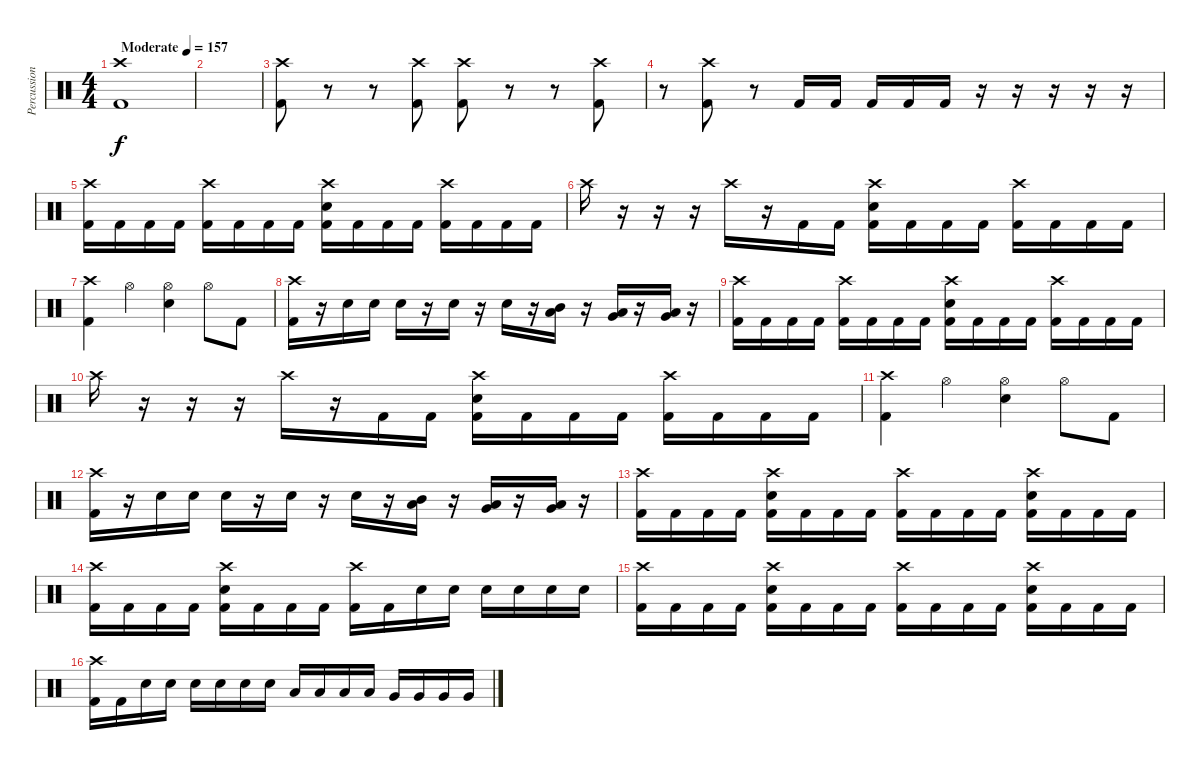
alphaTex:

\track ("Percussion" "Percussion") {instrument percussion}
\staff {score}
\articulation defaults
\ts (4 4)
\tempo (157 "Moderate")
\clef neutral
\ks c
("Crash high (hit)" "Kick (hit) 2").1{dy f} |
|
("Crash high (hit)" "Kick (hit) 2").8 r.8 r.8 ("Crash high (hit)" "Kick (hit) 2").8 ("Crash high (hit)" "Kick (hit) 2").8 r.8 r.8 ("Crash high (hit)" "Kick (hit) 2").8 |
r.8 ("Crash high (hit)" "Kick (hit) 2").8 r.8 "Kick (hit) 2".16 "Kick (hit) 2".16 "Kick (hit) 2".16 "Kick (hit) 2".16 "Kick (hit) 2".16 r.16 r.16 r.16 r.16 r.16 |
("Crash high (hit)" "Kick (hit) 2").16 "Kick (hit) 2".16 "Kick (hit) 2".16 "Kick (hit) 2".16 ("Crash high (hit)" "Kick (hit) 2").16 "Kick (hit) 2".16 "Kick (hit) 2".16 "Kick (hit) 2".16 ("Crash high (hit)" "Electric Snare (hit)" "Kick (hit) 2").16 "Kick (hit) 2".16 "Kick (hit) 2".16 "Kick (hit) 2".16 ("Crash high (hit)" "Kick (hit) 2").16 "Kick (hit) 2".16 "Kick (hit) 2".16 "Kick (hit) 2".16 |
"Crash high (hit)".16 r.16 r.16 r.16 "Crash high (hit)".16 r.16 "Kick (hit) 2".16 "Kick (hit) 2".16 ("Crash high (hit)" "Electric Snare (hit)" "Kick (hit) 2").16 "Kick (hit) 2".16 "Kick (hit) 2".16 "Kick (hit) 2".16 ("Crash high (hit)" "Kick (hit) 2").16 "Kick (hit) 2".16 "Kick (hit) 2".16 "Kick (hit) 2".16 |
("Crash high (hit)" "Kick (hit) 2").4 "Hi-Hat (open)".4 ("Hi-Hat (open)" "Electric Snare (hit)").4 "Hi-Hat (open)".8 "Kick (hit) 2".8 |
("Crash high (hit)" "Kick (hit) 2").16 r.16 "Electric Snare (hit)".16 "Electric Snare (hit)".16 "Electric Snare (hit)".16 r.16 "Electric Snare (hit)".16 r.16 "Electric Snare (hit)".16 r.16 ("Mid Tom (hit)" "Low Tom (hit)").16 r.16 ("Low Tom (hit)" "Very Low Tom (hit)").16 r.16 ("Very Low Tom (hit)" "Low Floor Tom (hit)").16 r.16 |
("Crash high (hit)" "Kick (hit) 2").16 "Kick (hit) 2".16 "Kick (hit) 2".16 "Kick (hit) 2".16 ("Crash high (hit)" "Kick (hit) 2").16 "Kick (hit) 2".16 "Kick (hit) 2".16 "Kick (hit) 2".16 ("Crash high (hit)" "Electric Snare (hit)" "Kick (hit) 2").16 "Kick (hit) 2".16 "Kick (hit) 2".16 "Kick (hit) 2".16 ("Crash high (hit)" "Kick (hit) 2").16 "Kick (hit) 2".16 "Kick (hit) 2".16 "Kick (hit) 2".16 |
"Crash high (hit)".16 r.16 r.16 r.16 "Crash high (hit)".16 r.16 "Kick (hit) 2".16 "Kick (hit) 2".16 ("Crash high (hit)" "Electric Snare (hit)" "Kick (hit) 2").16 "Kick (hit) 2".16 "Kick (hit) 2".16 "Kick (hit) 2".16 ("Crash high (hit)" "Kick (hit) 2").16 "Kick (hit) 2".16 "Kick (hit) 2".16 "Kick (hit) 2".16 |
("Crash high (hit)" "Kick (hit) 2").4 "Hi-Hat (open)".4 ("Hi-Hat (open)" "Electric Snare (hit)").4 "Hi-Hat (open)".8 "Kick (hit) 2".8 |
("Crash high (hit)" "Kick (hit) 2").16 r.16 "Electric Snare (hit)".16 "Electric Snare (hit)".16 "Electric Snare (hit)".16 r.16 "Electric Snare (hit)".16 r.16 "Electric Snare (hit)".16 r.16 ("Mid Tom (hit)" "Low Tom (hit)").16 r.16 ("Low Tom (hit)" "Very Low Tom (hit)").16 r.16 ("Very Low Tom (hit)" "Low Floor Tom (hit)").16 r.16 |
("Crash high (hit)" "Kick (hit) 2").16 "Kick (hit) 2".16 "Kick (hit) 2".16 "Kick (hit) 2".16 ("Crash high (hit)" "Electric Snare (hit)" "Kick (hit) 2").16 "Kick (hit) 2".16 "Kick (hit) 2".16 "Kick (hit) 2".16 ("Crash high (hit)" "Kick (hit) 2").16 "Kick (hit) 2".16 "Kick (hit) 2".16 "Kick (hit) 2".16 ("Crash high (hit)" "Electric Snare (hit)" "Kick (hit) 2").16 "Kick (hit) 2".16 "Kick (hit) 2".16 "Kick (hit) 2".16 |
("Crash high (hit)" "Kick (hit) 2").16 "Kick (hit) 2".16 "Kick (hit) 2".16 "Kick (hit) 2".16 ("Crash high (hit)" "Electric Snare (hit)" "Kick (hit) 2").16 "Kick (hit) 2".16 "Kick (hit) 2".16 "Kick (hit) 2".16 ("Crash high (hit)" "Kick (hit) 2").16 "Kick (hit) 2".16 "Electric Snare (hit)".16 "Electric Snare (hit)".16 "Electric Snare (hit)".16 "Electric Snare (hit)".16 "Electric Snare (hit)".16 "Electric Snare (hit)".16 |
("Crash high (hit)" "Kick (hit) 2").16 "Kick (hit) 2".16 "Kick (hit) 2".16 "Kick (hit) 2".16 ("Crash high (hit)" "Electric Snare (hit)" "Kick (hit) 2").16 "Kick (hit) 2".16 "Kick (hit) 2".16 "Kick (hit) 2".16 ("Crash high (hit)" "Kick (hit) 2").16 "Kick (hit) 2".16 "Kick (hit) 2".16 "Kick (hit) 2".16 ("Crash high (hit)" "Electric Snare (hit)" "Kick (hit) 2").16 "Kick (hit) 2".16 "Kick (hit) 2".16 "Kick (hit) 2".16 |
("Crash high (hit)" "Kick (hit) 2").16 "Kick (hit) 2".16 "Electric Snare (hit)".16 "Electric Snare (hit)".16 "Electric Snare (hit)".16 "Electric Snare (hit)".16 "Electric Snare (hit)".16 "Electric Snare (hit)".16 "Low Tom (hit)".16 "Low Tom (hit)".16 "Low Tom (hit)".16 "Low Tom (hit)".16 "Very Low Tom (hit)".16 "Very Low Tom (hit)".16 "Very Low Tom (hit)".16 "Very Low Tom (hit)".16
